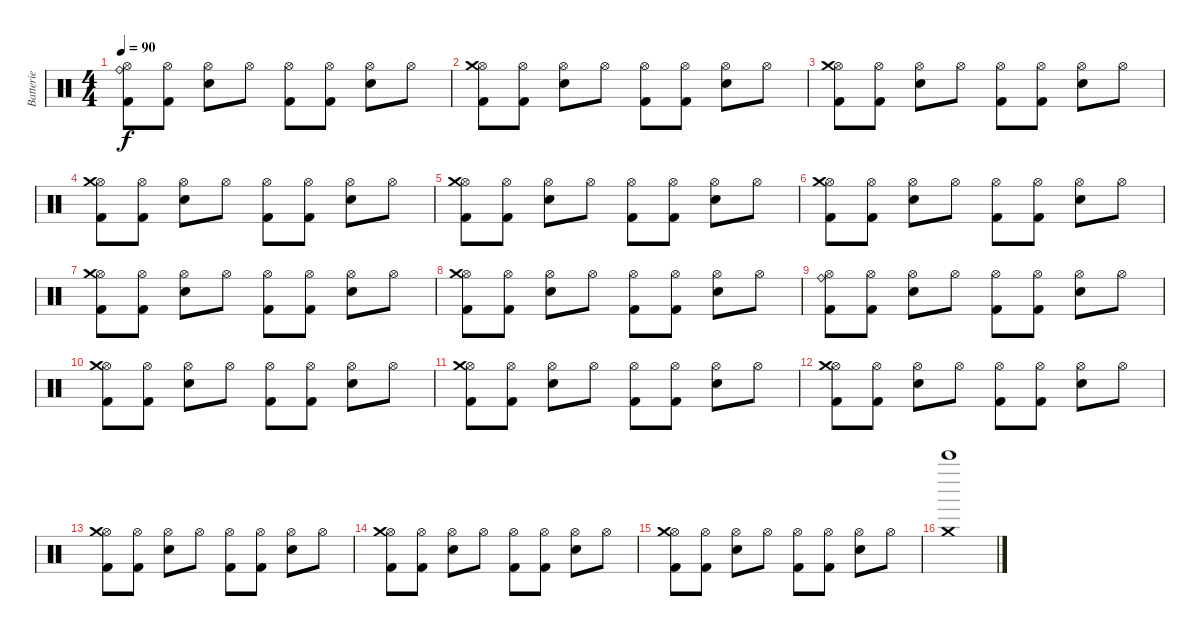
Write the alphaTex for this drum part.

\track ("Batterie" "Batterie") {instrument percussion}
\staff {score}
\articulation defaults
\ts (4 4)
\tempo 90
\clef neutral
\ks c
("Hi-Hat (open)" "Kick (hit) 2" "Ride (bell)").8{dy f} ("Hi-Hat (open)" "Kick (hit) 2").8 ("Hi-Hat (open)" "Snare (hit) 2").8 "Hi-Hat (open)".8 ("Hi-Hat (open)" "Kick (hit) 2").8 ("Hi-Hat (open)" "Kick (hit) 2").8 ("Hi-Hat (open)" "Snare (hit) 2").8 "Hi-Hat (open)".8 |
("Hi-Hat (open)" "Kick (hit) 2" "Crash medium (hit)").8 ("Hi-Hat (open)" "Kick (hit) 2").8 ("Hi-Hat (open)" "Snare (hit) 2").8 "Hi-Hat (open)".8 ("Hi-Hat (open)" "Kick (hit) 2").8 ("Hi-Hat (open)" "Kick (hit) 2").8 ("Hi-Hat (open)" "Snare (hit) 2").8 "Hi-Hat (open)".8 |
("Hi-Hat (open)" "Kick (hit) 2" "Crash medium (hit)").8 ("Hi-Hat (open)" "Kick (hit) 2").8 ("Hi-Hat (open)" "Snare (hit) 2").8 "Hi-Hat (open)".8 ("Hi-Hat (open)" "Kick (hit) 2").8 ("Hi-Hat (open)" "Kick (hit) 2").8 ("Hi-Hat (open)" "Snare (hit) 2").8 "Hi-Hat (open)".8 |
("Hi-Hat (open)" "Kick (hit) 2" "Crash medium (hit)").8 ("Hi-Hat (open)" "Kick (hit) 2").8 ("Hi-Hat (open)" "Snare (hit) 2").8 "Hi-Hat (open)".8 ("Hi-Hat (open)" "Kick (hit) 2").8 ("Hi-Hat (open)" "Kick (hit) 2").8 ("Hi-Hat (open)" "Snare (hit) 2").8 "Hi-Hat (open)".8 |
("Hi-Hat (open)" "Kick (hit) 2" "Crash medium (hit)").8 ("Hi-Hat (open)" "Kick (hit) 2").8 ("Hi-Hat (open)" "Snare (hit) 2").8 "Hi-Hat (open)".8 ("Hi-Hat (open)" "Kick (hit) 2").8 ("Hi-Hat (open)" "Kick (hit) 2").8 ("Hi-Hat (open)" "Snare (hit) 2").8 "Hi-Hat (open)".8 |
("Hi-Hat (open)" "Kick (hit) 2" "Crash medium (hit)").8 ("Hi-Hat (open)" "Kick (hit) 2").8 ("Hi-Hat (open)" "Snare (hit) 2").8 "Hi-Hat (open)".8 ("Hi-Hat (open)" "Kick (hit) 2").8 ("Hi-Hat (open)" "Kick (hit) 2").8 ("Hi-Hat (open)" "Snare (hit) 2").8 "Hi-Hat (open)".8 |
("Hi-Hat (open)" "Kick (hit) 2" "Crash medium (hit)").8 ("Hi-Hat (open)" "Kick (hit) 2").8 ("Hi-Hat (open)" "Snare (hit) 2").8 "Hi-Hat (open)".8 ("Hi-Hat (open)" "Kick (hit) 2").8 ("Hi-Hat (open)" "Kick (hit) 2").8 ("Hi-Hat (open)" "Snare (hit) 2").8 "Hi-Hat (open)".8 |
("Hi-Hat (open)" "Kick (hit) 2" "Crash medium (hit)").8 ("Hi-Hat (open)" "Kick (hit) 2").8 ("Hi-Hat (open)" "Snare (hit) 2").8 "Hi-Hat (open)".8 ("Hi-Hat (open)" "Kick (hit) 2").8 ("Hi-Hat (open)" "Kick (hit) 2").8 ("Hi-Hat (open)" "Snare (hit) 2").8 "Hi-Hat (open)".8 |
("Hi-Hat (open)" "Kick (hit) 2" "Ride (bell)").8 ("Hi-Hat (open)" "Kick (hit) 2").8 ("Hi-Hat (open)" "Snare (hit) 2").8 "Hi-Hat (open)".8 ("Hi-Hat (open)" "Kick (hit) 2").8 ("Hi-Hat (open)" "Kick (hit) 2").8 ("Hi-Hat (open)" "Snare (hit) 2").8 "Hi-Hat (open)".8 |
("Hi-Hat (open)" "Kick (hit) 2" "Crash medium (hit)").8 ("Hi-Hat (open)" "Kick (hit) 2").8 ("Hi-Hat (open)" "Snare (hit) 2").8 "Hi-Hat (open)".8 ("Hi-Hat (open)" "Kick (hit) 2").8 ("Hi-Hat (open)" "Kick (hit) 2").8 ("Hi-Hat (open)" "Snare (hit) 2").8 "Hi-Hat (open)".8 |
("Hi-Hat (open)" "Kick (hit) 2" "Crash medium (hit)").8 ("Hi-Hat (open)" "Kick (hit) 2").8 ("Hi-Hat (open)" "Snare (hit) 2").8 "Hi-Hat (open)".8 ("Hi-Hat (open)" "Kick (hit) 2").8 ("Hi-Hat (open)" "Kick (hit) 2").8 ("Hi-Hat (open)" "Snare (hit) 2").8 "Hi-Hat (open)".8 |
("Hi-Hat (open)" "Kick (hit) 2" "Crash medium (hit)").8 ("Hi-Hat (open)" "Kick (hit) 2").8 ("Hi-Hat (open)" "Snare (hit) 2").8 "Hi-Hat (open)".8 ("Hi-Hat (open)" "Kick (hit) 2").8 ("Hi-Hat (open)" "Kick (hit) 2").8 ("Hi-Hat (open)" "Snare (hit) 2").8 "Hi-Hat (open)".8 |
("Hi-Hat (open)" "Kick (hit) 2" "Crash medium (hit)").8 ("Hi-Hat (open)" "Kick (hit) 2").8 ("Hi-Hat (open)" "Snare (hit) 2").8 "Hi-Hat (open)".8 ("Hi-Hat (open)" "Kick (hit) 2").8 ("Hi-Hat (open)" "Kick (hit) 2").8 ("Hi-Hat (open)" "Snare (hit) 2").8 "Hi-Hat (open)".8 |
("Hi-Hat (open)" "Kick (hit) 2" "Crash medium (hit)").8 ("Hi-Hat (open)" "Kick (hit) 2").8 ("Hi-Hat (open)" "Snare (hit) 2").8 "Hi-Hat (open)".8 ("Hi-Hat (open)" "Kick (hit) 2").8 ("Hi-Hat (open)" "Kick (hit) 2").8 ("Hi-Hat (open)" "Snare (hit) 2").8 "Hi-Hat (open)".8 |
("Hi-Hat (open)" "Kick (hit) 2" "Crash medium (hit)").8 ("Hi-Hat (open)" "Kick (hit) 2").8 ("Hi-Hat (open)" "Snare (hit) 2").8 "Hi-Hat (open)".8 ("Hi-Hat (open)" "Kick (hit) 2").8 ("Hi-Hat (open)" "Kick (hit) 2").8 ("Hi-Hat (open)" "Snare (hit) 2").8 "Hi-Hat (open)".8 |
("Bell Tree (hit)" "Crash medium (hit)").1
